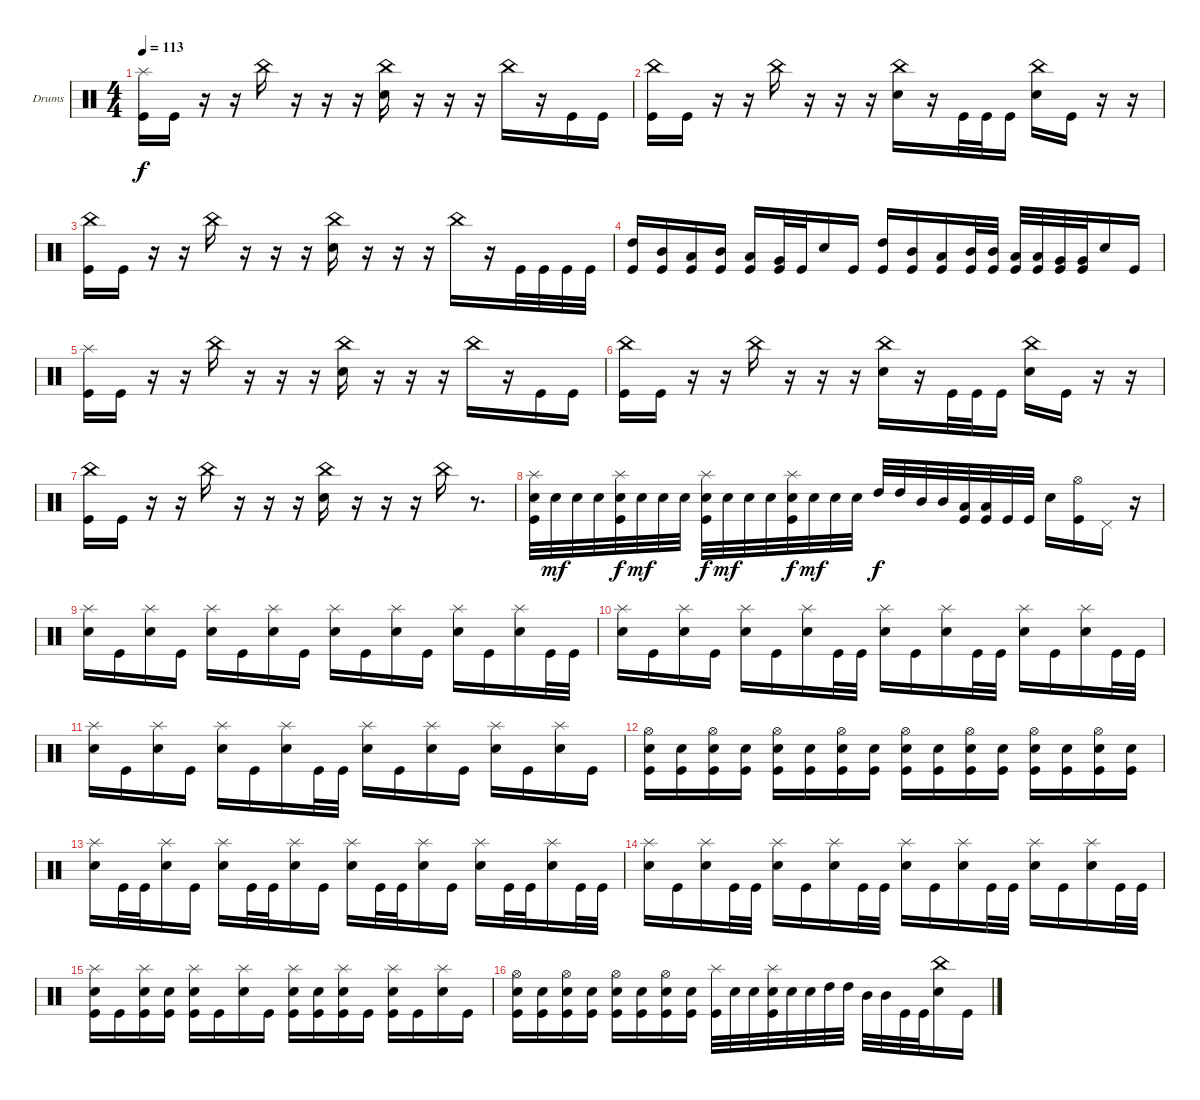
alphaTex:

\bracketExtendMode groupsimilarinstruments
\firstSystemTrackNameOrientation horizontal
\otherSystemsTrackNameOrientation horizontal
\track ("Drumkit" "Drums") {instrument percussion}
\staff {score}
\articulation defaults
\ts (4 4)
\tempo 113
\clef neutral
\ks c
("Splash (hit)" "Kick (hit)").16{dy f} "Kick (hit)".16 r.16 r.16 "China (hit)".16 r.16 r.16 r.16 ("China (hit)" "Snare (hit) 2").16 r.16 r.16 r.16 "China (hit)".16 r.16 "Kick (hit)".16 "Kick (hit)".16 |
("China (hit)" "Kick (hit)").16 "Kick (hit)".16 r.16 r.16 "China (hit)".16 r.16 r.16 r.16 ("China (hit)" "Snare (hit) 2").16 r.16 "Kick (hit)".32 "Kick (hit)".32 "Kick (hit)".16 ("China (hit)" "Snare (hit) 2").16 "Kick (hit)".16 r.16 r.16 |
("China (hit)" "Kick (hit)").16 "Kick (hit)".16 r.16 r.16 "China (hit)".16 r.16 r.16 r.16 ("China (hit)" "Snare (hit) 2").16 r.16 r.16 r.16 "China (hit)".16 r.16 "Kick (hit)".32 "Kick (hit)".32 "Kick (hit)".32 "Kick (hit)".32 |
("High Tom (hit)" "Kick (hit)").16 ("Mid Tom (hit)" "Kick (hit)").16 ("Low Tom (hit)" "Kick (hit)").16 ("Mid Tom (hit)" "Kick (hit)").16 ("Low Tom (hit)" "Kick (hit)").16 ("Very Low Tom (hit)" "Kick (hit)").32 "Kick (hit)".32 "Snare (hit) 2".16 "Kick (hit)".16 ("High Tom (hit)" "Kick (hit)").16 ("Mid Tom (hit)" "Kick (hit)").16 ("Low Tom (hit)" "Kick (hit)").16 ("Mid Tom (hit)" "Kick (hit)").32 ("Mid Tom (hit)" "Kick (hit)").32 ("Low Tom (hit)" "Kick (hit)").32 ("Low Tom (hit)" "Kick (hit)").32 ("Very Low Tom (hit)" "Kick (hit)").32 ("Very Low Tom (hit)" "Kick (hit)").32 "Snare (hit) 2".16 "Kick (hit)".16 |
("Splash (hit)" "Kick (hit)").16 "Kick (hit)".16 r.16 r.16 "China (hit)".16 r.16 r.16 r.16 ("China (hit)" "Snare (hit) 2").16 r.16 r.16 r.16 "China (hit)".16 r.16 "Kick (hit)".16 "Kick (hit)".16 |
("China (hit)" "Kick (hit)").16 "Kick (hit)".16 r.16 r.16 "China (hit)".16 r.16 r.16 r.16 ("China (hit)" "Snare (hit) 2").16 r.16 "Kick (hit)".32 "Kick (hit)".32 "Kick (hit)".16 ("China (hit)" "Snare (hit) 2").16 "Kick (hit)".16 r.16 r.16 |
("China (hit)" "Kick (hit)").16 "Kick (hit)".16 r.16 r.16 "China (hit)".16 r.16 r.16 r.16 ("China (hit)" "Snare (hit) 2").16 r.16 r.16 r.16 "China (hit)".16 r.8{d} |
("Splash (hit)" "Snare (hit) 2" "Kick (hit)").32 "Snare (hit) 2".32{dy mf} "Snare (hit) 2".32 "Snare (hit) 2".32 ("Splash (hit)" "Snare (hit) 2" "Kick (hit)").32{dy f} "Snare (hit) 2".32{dy mf} "Snare (hit) 2".32 "Snare (hit) 2".32 ("Splash (hit)" "Snare (hit) 2" "Kick (hit)").32{dy f} "Snare (hit) 2".32{dy mf} "Snare (hit) 2".32 "Snare (hit) 2".32 ("Splash (hit)" "Snare (hit) 2" "Kick (hit)").32{dy f} "Snare (hit) 2".32{dy mf} "Snare (hit) 2".32 "Snare (hit) 2".32 "High Tom (hit)".32{dy f} "High Tom (hit)".32 "Mid Tom (hit)".32 "Mid Tom (hit)".32 ("Low Tom (hit)" "Kick (hit)").32 ("Low Tom (hit)" "Kick (hit)").32 "Kick (hit)".32 "Kick (hit)".32 "Snare (hit) 2".16 ("Hi-Hat (open)" "Kick (hit)").16 "Pedal Hi-Hat (hit)".16 r.16 |
("Splash (hit)" "Snare (hit) 2").16 "Kick (hit)".16 ("Splash (hit)" "Snare (hit) 2").16 "Kick (hit)".16 ("Splash (hit)" "Snare (hit) 2").16 "Kick (hit)".16 ("Splash (hit)" "Snare (hit) 2").16 "Kick (hit)".16 ("Splash (hit)" "Snare (hit) 2").16 "Kick (hit)".16 ("Splash (hit)" "Snare (hit) 2").16 "Kick (hit)".16 ("Splash (hit)" "Snare (hit) 2").16 "Kick (hit)".16 ("Splash (hit)" "Snare (hit) 2").16 "Kick (hit)".32 "Kick (hit)".32 |
("Splash (hit)" "Snare (hit) 2").16 "Kick (hit)".16 ("Splash (hit)" "Snare (hit) 2").16 "Kick (hit)".16 ("Splash (hit)" "Snare (hit) 2").16 "Kick (hit)".16 ("Splash (hit)" "Snare (hit) 2").16 "Kick (hit)".32 "Kick (hit)".32 ("Splash (hit)" "Snare (hit) 2").16 "Kick (hit)".16 ("Splash (hit)" "Snare (hit) 2").16 "Kick (hit)".32 "Kick (hit)".32 ("Splash (hit)" "Snare (hit) 2").16 "Kick (hit)".16 ("Splash (hit)" "Snare (hit) 2").16 "Kick (hit)".32 "Kick (hit)".32 |
("Splash (hit)" "Snare (hit) 2").16 "Kick (hit)".16 ("Splash (hit)" "Snare (hit) 2").16 "Kick (hit)".16 ("Splash (hit)" "Snare (hit) 2").16 "Kick (hit)".16 ("Splash (hit)" "Snare (hit) 2").16 "Kick (hit)".32 "Kick (hit)".32 ("Splash (hit)" "Snare (hit) 2").16 "Kick (hit)".16 ("Splash (hit)" "Snare (hit) 2").16 "Kick (hit)".16 ("Splash (hit)" "Snare (hit) 2").16 "Kick (hit)".16 ("Splash (hit)" "Snare (hit) 2").16 "Kick (hit)".16 |
("Hi-Hat (open)" "Snare (hit) 2" "Kick (hit)").16 ("Snare (hit) 2" "Kick (hit)").16 ("Hi-Hat (open)" "Snare (hit) 2" "Kick (hit)").16 ("Snare (hit) 2" "Kick (hit)").16 ("Hi-Hat (open)" "Snare (hit) 2" "Kick (hit)").16 ("Snare (hit) 2" "Kick (hit)").16 ("Hi-Hat (open)" "Snare (hit) 2" "Kick (hit)").16 ("Snare (hit) 2" "Kick (hit)").16 ("Hi-Hat (open)" "Snare (hit) 2" "Kick (hit)").16 ("Snare (hit) 2" "Kick (hit)").16 ("Hi-Hat (open)" "Snare (hit) 2" "Kick (hit)").16 ("Snare (hit) 2" "Kick (hit)").16 ("Hi-Hat (open)" "Snare (hit) 2" "Kick (hit)").16 ("Snare (hit) 2" "Kick (hit)").16 ("Hi-Hat (open)" "Snare (hit) 2" "Kick (hit)").16 ("Snare (hit) 2" "Kick (hit)").16 |
("Splash (hit)" "Snare (hit) 2").16 "Kick (hit)".32 "Kick (hit)".32 ("Splash (hit)" "Snare (hit) 2").16 "Kick (hit)".16 ("Splash (hit)" "Snare (hit) 2").16 "Kick (hit)".32 "Kick (hit)".32 ("Splash (hit)" "Snare (hit) 2").16 "Kick (hit)".16 ("Splash (hit)" "Snare (hit) 2").16 "Kick (hit)".32 "Kick (hit)".32 ("Splash (hit)" "Snare (hit) 2").16 "Kick (hit)".16 ("Splash (hit)" "Snare (hit) 2").16 "Kick (hit)".32 "Kick (hit)".32 ("Splash (hit)" "Snare (hit) 2").16 "Kick (hit)".32 "Kick (hit)".32 |
("Splash (hit)" "Snare (hit) 2").16 "Kick (hit)".16 ("Splash (hit)" "Snare (hit) 2").16 "Kick (hit)".32 "Kick (hit)".32 ("Splash (hit)" "Snare (hit) 2").16 "Kick (hit)".16 ("Splash (hit)" "Snare (hit) 2").16 "Kick (hit)".32 "Kick (hit)".32 ("Splash (hit)" "Snare (hit) 2").16 "Kick (hit)".16 ("Splash (hit)" "Snare (hit) 2").16 "Kick (hit)".32 "Kick (hit)".32 ("Splash (hit)" "Snare (hit) 2").16 "Kick (hit)".16 ("Splash (hit)" "Snare (hit) 2").16 "Kick (hit)".32 "Kick (hit)".32 |
("Splash (hit)" "Snare (hit) 2" "Kick (hit)").16 "Kick (hit)".16 ("Splash (hit)" "Snare (hit) 2" "Kick (hit)").16 ("Snare (hit) 2" "Kick (hit)").16 ("Splash (hit)" "Snare (hit) 2" "Kick (hit)").16 "Kick (hit)".16 ("Splash (hit)" "Snare (hit) 2").16 "Kick (hit)".16 ("Splash (hit)" "Snare (hit) 2" "Kick (hit)").16 ("Snare (hit) 2" "Kick (hit)").16 ("Splash (hit)" "Snare (hit) 2" "Kick (hit)").16 "Kick (hit)".16 ("Splash (hit)" "Snare (hit) 2" "Kick (hit)").16 "Kick (hit)".16 ("Splash (hit)" "Snare (hit) 2").16 "Kick (hit)".16 |
("Hi-Hat (open)" "Snare (hit) 2" "Kick (hit)").16 ("Snare (hit) 2" "Kick (hit)").16 ("Hi-Hat (open)" "Snare (hit) 2" "Kick (hit)").16 ("Snare (hit) 2" "Kick (hit)").16 ("Hi-Hat (open)" "Snare (hit) 2" "Kick (hit)").16 ("Snare (hit) 2" "Kick (hit)").16 ("Hi-Hat (open)" "Snare (hit) 2" "Kick (hit)").16 ("Snare (hit) 2" "Kick (hit)").16 ("Splash (hit)" "Kick (hit)").32 "Snare (hit) 2".32 "Snare (hit) 2".32 ("Splash (hit)" "Snare (hit) 2" "Kick (hit)").32 "Snare (hit) 2".32 "Snare (hit) 2".32 "High Tom (hit)".32 "High Tom (hit)".32 "Mid Tom (hit)".32 "Mid Tom (hit)".32 "Kick (hit)".32 "Kick (hit)".32 ("China (hit)" "Snare (hit) 2").16 "Kick (hit)".16
